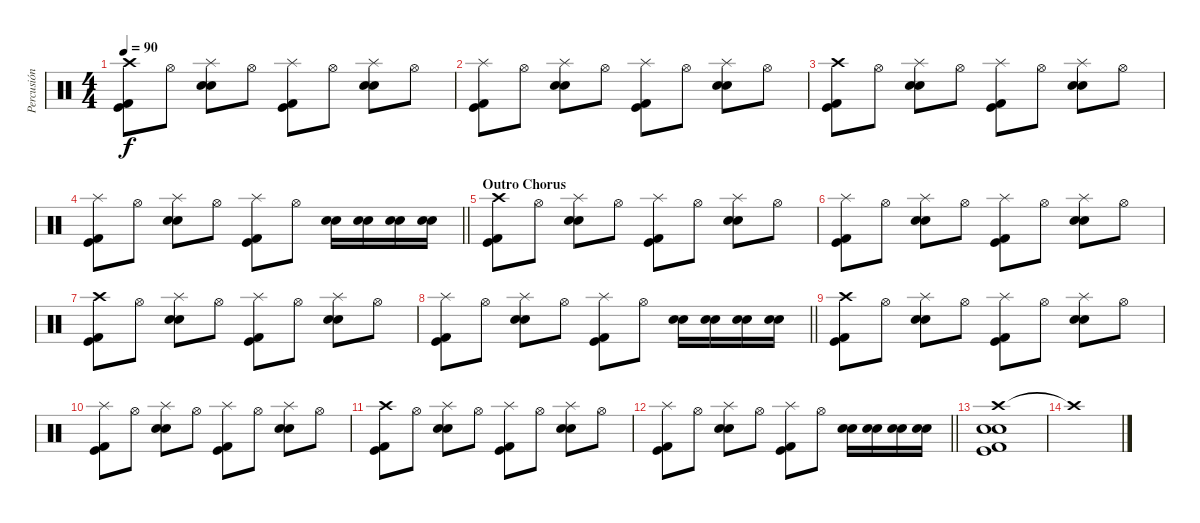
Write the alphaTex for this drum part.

\track ("Percusión" "Percusión") {instrument percussion}
\staff {score}
\articulation defaults
\ts (4 4)
\tempo 90
\clef neutral
\ks c
("Crash high (hit)" "Kick (hit) 2" "Kick (hit)").8{dy f} "Hi-Hat (open)".8 ("Splash (hit)" "Electric Snare (hit)" "Snare (hit) 2").8 "Hi-Hat (open)".8 ("Splash (hit)" "Kick (hit) 2" "Kick (hit)").8 "Hi-Hat (open)".8 ("Splash (hit)" "Electric Snare (hit)" "Snare (hit) 2").8 "Hi-Hat (open)".8 |
("Splash (hit)" "Kick (hit) 2" "Kick (hit)").8 "Hi-Hat (open)".8 ("Splash (hit)" "Electric Snare (hit)" "Snare (hit) 2").8 "Hi-Hat (open)".8 ("Splash (hit)" "Kick (hit) 2" "Kick (hit)").8 "Hi-Hat (open)".8 ("Splash (hit)" "Electric Snare (hit)" "Snare (hit) 2").8 "Hi-Hat (open)".8 |
("Crash high (hit)" "Kick (hit) 2" "Kick (hit)").8 "Hi-Hat (open)".8 ("Splash (hit)" "Electric Snare (hit)" "Snare (hit) 2").8 "Hi-Hat (open)".8 ("Splash (hit)" "Kick (hit) 2" "Kick (hit)").8 "Hi-Hat (open)".8 ("Splash (hit)" "Electric Snare (hit)" "Snare (hit) 2").8 "Hi-Hat (open)".8 |
\barLineRight lightlight
("Splash (hit)" "Kick (hit) 2" "Kick (hit)").8 "Hi-Hat (open)".8 ("Splash (hit)" "Electric Snare (hit)" "Snare (hit) 2").8 "Hi-Hat (open)".8 ("Splash (hit)" "Kick (hit) 2" "Kick (hit)").8 "Hi-Hat (open)".8 ("Electric Snare (hit)" "Snare (hit) 2").16 ("Electric Snare (hit)" "Snare (hit) 2").16 ("Electric Snare (hit)" "Snare (hit) 2").16 ("Electric Snare (hit)" "Snare (hit) 2").16 |
\section ("" "Outro Chorus")
("Crash high (hit)" "Kick (hit) 2" "Kick (hit)").8 "Hi-Hat (open)".8 ("Splash (hit)" "Electric Snare (hit)" "Snare (hit) 2").8 "Hi-Hat (open)".8 ("Splash (hit)" "Kick (hit) 2" "Kick (hit)").8 "Hi-Hat (open)".8 ("Splash (hit)" "Electric Snare (hit)" "Snare (hit) 2").8 "Hi-Hat (open)".8 |
("Splash (hit)" "Kick (hit) 2" "Kick (hit)").8 "Hi-Hat (open)".8 ("Splash (hit)" "Electric Snare (hit)" "Snare (hit) 2").8 "Hi-Hat (open)".8 ("Splash (hit)" "Kick (hit) 2" "Kick (hit)").8 "Hi-Hat (open)".8 ("Splash (hit)" "Electric Snare (hit)" "Snare (hit) 2").8 "Hi-Hat (open)".8 |
("Crash high (hit)" "Kick (hit) 2" "Kick (hit)").8 "Hi-Hat (open)".8 ("Splash (hit)" "Electric Snare (hit)" "Snare (hit) 2").8 "Hi-Hat (open)".8 ("Splash (hit)" "Kick (hit) 2" "Kick (hit)").8 "Hi-Hat (open)".8 ("Splash (hit)" "Electric Snare (hit)" "Snare (hit) 2").8 "Hi-Hat (open)".8 |
\barLineRight lightlight
("Splash (hit)" "Kick (hit) 2" "Kick (hit)").8 "Hi-Hat (open)".8 ("Splash (hit)" "Electric Snare (hit)" "Snare (hit) 2").8 "Hi-Hat (open)".8 ("Splash (hit)" "Kick (hit) 2" "Kick (hit)").8 "Hi-Hat (open)".8 ("Electric Snare (hit)" "Snare (hit) 2").16 ("Electric Snare (hit)" "Snare (hit) 2").16 ("Electric Snare (hit)" "Snare (hit) 2").16 ("Electric Snare (hit)" "Snare (hit) 2").16 |
("Crash high (hit)" "Kick (hit) 2" "Kick (hit)").8 "Hi-Hat (open)".8 ("Splash (hit)" "Electric Snare (hit)" "Snare (hit) 2").8 "Hi-Hat (open)".8 ("Splash (hit)" "Kick (hit) 2" "Kick (hit)").8 "Hi-Hat (open)".8 ("Splash (hit)" "Electric Snare (hit)" "Snare (hit) 2").8 "Hi-Hat (open)".8 |
("Splash (hit)" "Kick (hit) 2" "Kick (hit)").8 "Hi-Hat (open)".8 ("Splash (hit)" "Electric Snare (hit)" "Snare (hit) 2").8 "Hi-Hat (open)".8 ("Splash (hit)" "Kick (hit) 2" "Kick (hit)").8 "Hi-Hat (open)".8 ("Splash (hit)" "Electric Snare (hit)" "Snare (hit) 2").8 "Hi-Hat (open)".8 |
("Crash high (hit)" "Kick (hit) 2" "Kick (hit)").8 "Hi-Hat (open)".8 ("Splash (hit)" "Electric Snare (hit)" "Snare (hit) 2").8 "Hi-Hat (open)".8 ("Splash (hit)" "Kick (hit) 2" "Kick (hit)").8 "Hi-Hat (open)".8 ("Splash (hit)" "Electric Snare (hit)" "Snare (hit) 2").8 "Hi-Hat (open)".8 |
\barLineRight lightlight
("Splash (hit)" "Kick (hit) 2" "Kick (hit)").8 "Hi-Hat (open)".8 ("Splash (hit)" "Electric Snare (hit)" "Snare (hit) 2").8 "Hi-Hat (open)".8 ("Splash (hit)" "Kick (hit) 2" "Kick (hit)").8 "Hi-Hat (open)".8 ("Electric Snare (hit)" "Snare (hit) 2").16 ("Electric Snare (hit)" "Snare (hit) 2").16 ("Electric Snare (hit)" "Snare (hit) 2").16 ("Electric Snare (hit)" "Snare (hit) 2").16 |
("Crash high (hit)" "Electric Snare (hit)" "Snare (hit) 2" "Kick (hit) 2" "Kick (hit)").1 |
"Crash high (hit)"{t}.1
